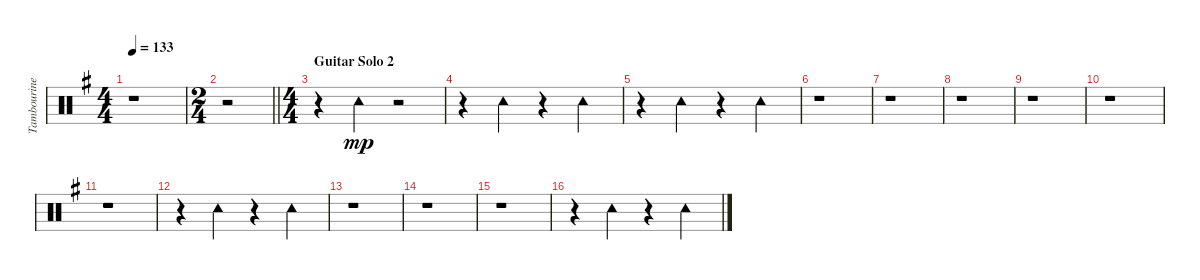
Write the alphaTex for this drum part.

\track ("Tambourine/Claps" "Tambourine") {instrument percussion}
\staff {score}
\articulation defaults
\ts (4 4)
\tempo 133
\clef neutral
\ks g
r.1{dy mp} |
\ts (2 4)
\barLineRight lightlight
r.2 |
\ts (4 4)
\section ("" "Guitar Solo 2")
r.4 "Tambourine (hit)".4 r.2 |
r.4 "Tambourine (hit)".4 r.4 "Tambourine (hit)".4 |
r.4 "Tambourine (hit)".4 r.4 "Tambourine (hit)".4 |
r.1 |
r.1 |
r.1 |
r.1 |
r.1 |
r.1 |
r.4 "Tambourine (hit)".4 r.4 "Tambourine (hit)".4 |
r.1 |
r.1 |
r.1 |
r.4 "Tambourine (hit)".4 r.4 "Tambourine (hit)".4
